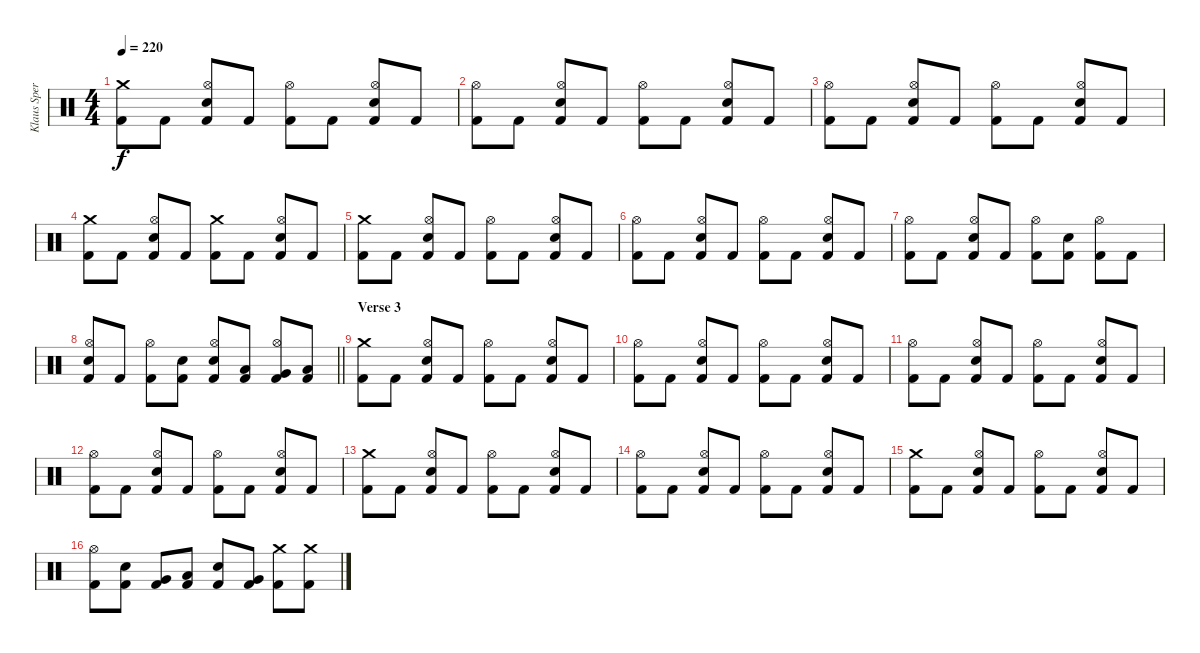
\track ("Klaus Sperling" "Klaus Sper") {instrument percussion}
\staff {score}
\articulation defaults
\ts (4 4)
\tempo 220
\clef neutral
\ks c
("Crash medium (hit)" "Kick (hit) 2").8{dy f} "Kick (hit) 2".8 ("Hi-Hat (open)" "Electric Snare (hit)" "Kick (hit) 2").8 "Kick (hit) 2".8 ("Hi-Hat (open)" "Kick (hit) 2").8 "Kick (hit) 2".8 ("Hi-Hat (open)" "Electric Snare (hit)" "Kick (hit) 2").8 "Kick (hit) 2".8 |
("Hi-Hat (open)" "Kick (hit) 2").8 "Kick (hit) 2".8 ("Hi-Hat (open)" "Electric Snare (hit)" "Kick (hit) 2").8 "Kick (hit) 2".8 ("Hi-Hat (open)" "Kick (hit) 2").8 "Kick (hit) 2".8 ("Hi-Hat (open)" "Electric Snare (hit)" "Kick (hit) 2").8 "Kick (hit) 2".8 |
("Hi-Hat (open)" "Kick (hit) 2").8 "Kick (hit) 2".8 ("Hi-Hat (open)" "Electric Snare (hit)" "Kick (hit) 2").8 "Kick (hit) 2".8 ("Hi-Hat (open)" "Kick (hit) 2").8 "Kick (hit) 2".8 ("Hi-Hat (open)" "Electric Snare (hit)" "Kick (hit) 2").8 "Kick (hit) 2".8 |
("Crash medium (hit)" "Kick (hit) 2").8 "Kick (hit) 2".8 ("Hi-Hat (open)" "Electric Snare (hit)" "Kick (hit) 2").8 "Kick (hit) 2".8 ("Crash medium (hit)" "Kick (hit) 2").8 "Kick (hit) 2".8 ("Hi-Hat (open)" "Electric Snare (hit)" "Kick (hit) 2").8 "Kick (hit) 2".8 |
("Crash medium (hit)" "Kick (hit) 2").8 "Kick (hit) 2".8 ("Hi-Hat (open)" "Electric Snare (hit)" "Kick (hit) 2").8 "Kick (hit) 2".8 ("Hi-Hat (open)" "Kick (hit) 2").8 "Kick (hit) 2".8 ("Hi-Hat (open)" "Electric Snare (hit)" "Kick (hit) 2").8 "Kick (hit) 2".8 |
("Hi-Hat (open)" "Kick (hit) 2").8 "Kick (hit) 2".8 ("Hi-Hat (open)" "Electric Snare (hit)" "Kick (hit) 2").8 "Kick (hit) 2".8 ("Hi-Hat (open)" "Kick (hit) 2").8 "Kick (hit) 2".8 ("Hi-Hat (open)" "Electric Snare (hit)" "Kick (hit) 2").8 "Kick (hit) 2".8 |
("Hi-Hat (open)" "Kick (hit) 2").8 "Kick (hit) 2".8 ("Hi-Hat (open)" "Electric Snare (hit)" "Kick (hit) 2").8 "Kick (hit) 2".8 ("Hi-Hat (open)" "Kick (hit) 2").8 ("Electric Snare (hit)" "Kick (hit) 2").8 ("Hi-Hat (open)" "Kick (hit) 2").8 "Kick (hit) 2".8 |
\barLineRight lightlight
("Hi-Hat (open)" "Electric Snare (hit)" "Kick (hit) 2").8 "Kick (hit) 2".8 ("Hi-Hat (open)" "Kick (hit) 2").8 ("Electric Snare (hit)" "Kick (hit) 2").8 ("Hi-Hat (open)" "Electric Snare (hit)" "Kick (hit) 2").8 ("Low Tom (hit)" "Kick (hit) 2").8 ("Hi-Hat (open)" "Very Low Tom (hit)" "Kick (hit) 2").8 ("Low Floor Tom (hit)" "Kick (hit) 2").8 |
\section ("" "Verse 3")
("Crash medium (hit)" "Kick (hit) 2").8 "Kick (hit) 2".8 ("Hi-Hat (open)" "Electric Snare (hit)" "Kick (hit) 2").8 "Kick (hit) 2".8 ("Hi-Hat (open)" "Kick (hit) 2").8 "Kick (hit) 2".8 ("Hi-Hat (open)" "Electric Snare (hit)" "Kick (hit) 2").8 "Kick (hit) 2".8 |
("Hi-Hat (open)" "Kick (hit) 2").8 "Kick (hit) 2".8 ("Hi-Hat (open)" "Electric Snare (hit)" "Kick (hit) 2").8 "Kick (hit) 2".8 ("Hi-Hat (open)" "Kick (hit) 2").8 "Kick (hit) 2".8 ("Hi-Hat (open)" "Electric Snare (hit)" "Kick (hit) 2").8 "Kick (hit) 2".8 |
("Hi-Hat (open)" "Kick (hit) 2").8 "Kick (hit) 2".8 ("Hi-Hat (open)" "Electric Snare (hit)" "Kick (hit) 2").8 "Kick (hit) 2".8 ("Hi-Hat (open)" "Kick (hit) 2").8 "Kick (hit) 2".8 ("Hi-Hat (open)" "Electric Snare (hit)" "Kick (hit) 2").8 "Kick (hit) 2".8 |
("Hi-Hat (open)" "Kick (hit) 2").8 "Kick (hit) 2".8 ("Hi-Hat (open)" "Electric Snare (hit)" "Kick (hit) 2").8 "Kick (hit) 2".8 ("Hi-Hat (open)" "Kick (hit) 2").8 "Kick (hit) 2".8 ("Hi-Hat (open)" "Electric Snare (hit)" "Kick (hit) 2").8 "Kick (hit) 2".8 |
("Crash medium (hit)" "Kick (hit) 2").8 "Kick (hit) 2".8 ("Hi-Hat (open)" "Electric Snare (hit)" "Kick (hit) 2").8 "Kick (hit) 2".8 ("Hi-Hat (open)" "Kick (hit) 2").8 "Kick (hit) 2".8 ("Hi-Hat (open)" "Electric Snare (hit)" "Kick (hit) 2").8 "Kick (hit) 2".8 |
("Hi-Hat (open)" "Kick (hit) 2").8 "Kick (hit) 2".8 ("Hi-Hat (open)" "Electric Snare (hit)" "Kick (hit) 2").8 "Kick (hit) 2".8 ("Hi-Hat (open)" "Kick (hit) 2").8 "Kick (hit) 2".8 ("Hi-Hat (open)" "Electric Snare (hit)" "Kick (hit) 2").8 "Kick (hit) 2".8 |
("Crash medium (hit)" "Kick (hit) 2").8 "Kick (hit) 2".8 ("Hi-Hat (open)" "Electric Snare (hit)" "Kick (hit) 2").8 "Kick (hit) 2".8 ("Hi-Hat (open)" "Kick (hit) 2").8 "Kick (hit) 2".8 ("Hi-Hat (open)" "Electric Snare (hit)" "Kick (hit) 2").8 "Kick (hit) 2".8 |
("Hi-Hat (open)" "Kick (hit) 2").8 ("Electric Snare (hit)" "Kick (hit) 2").8 ("Very Low Tom (hit)" "Kick (hit) 2").8 ("Low Floor Tom (hit)" "Kick (hit) 2").8 ("Electric Snare (hit)" "Kick (hit) 2").8 ("Very Low Tom (hit)" "Kick (hit) 2").8 ("Crash medium (hit)" "Kick (hit) 2").8 ("Crash medium (hit)" "Kick (hit) 2").8
